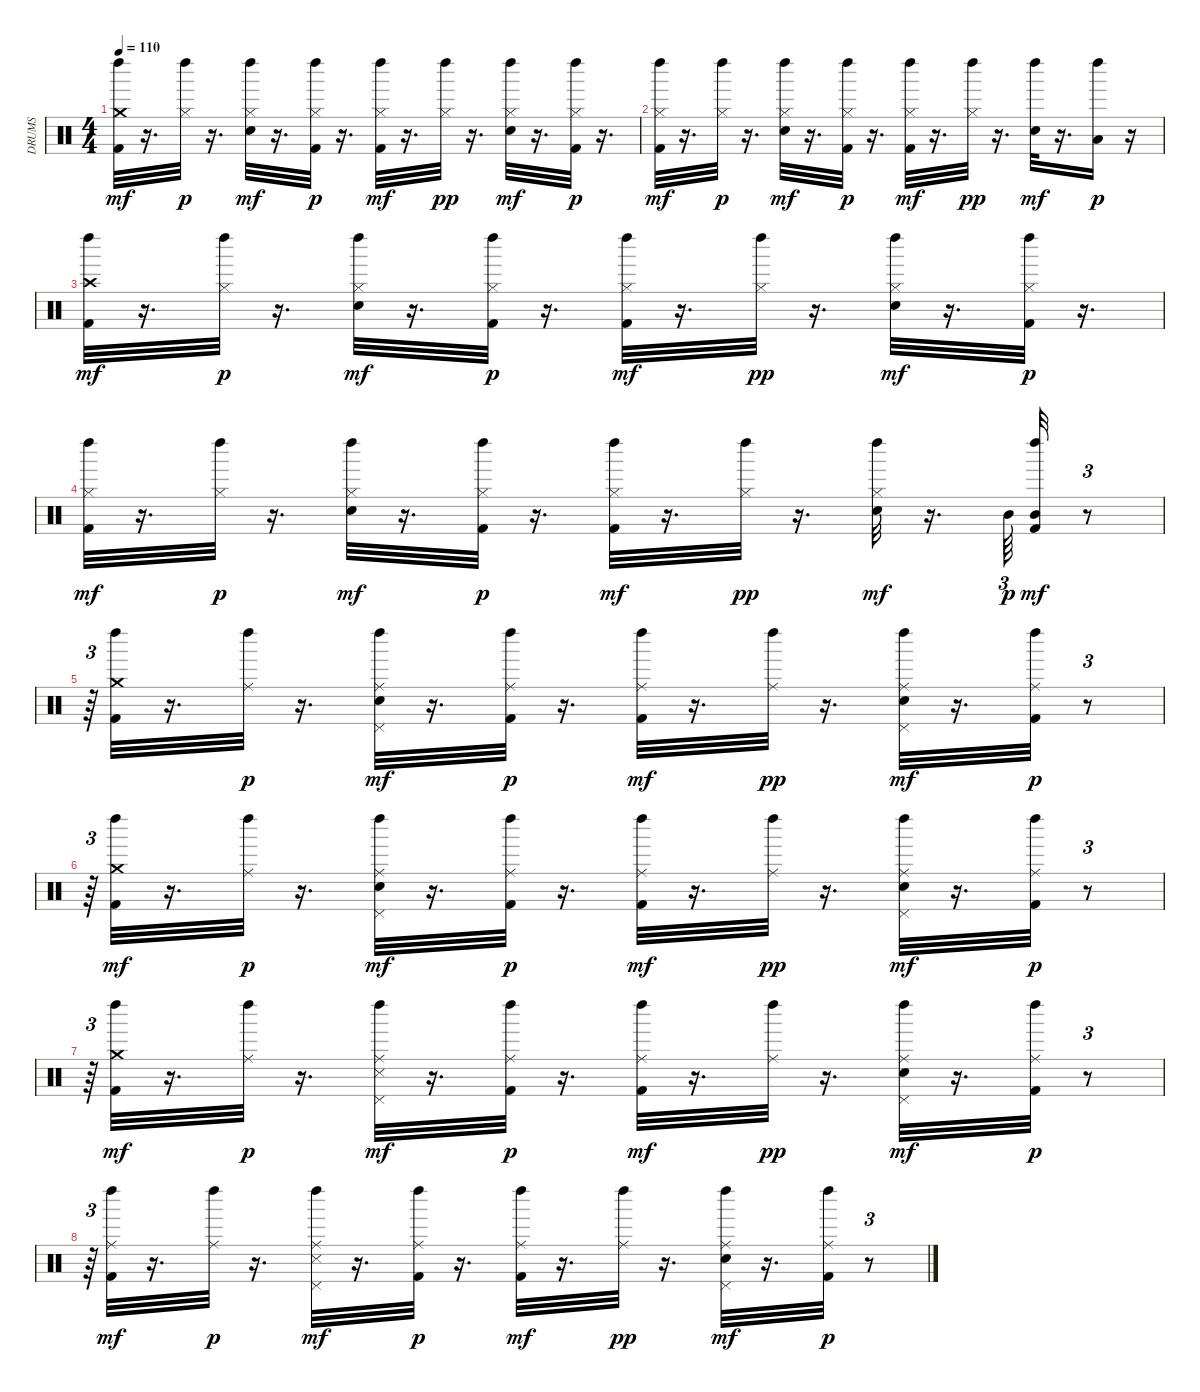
\track ("DRUMS" "DRUMS") {instrument percussion}
\staff {score}
\articulation defaults
\ts (4 4)
\tempo 110
\clef neutral
\ks c
("Kick (hit) 2" "Crash medium (hit)" "Left Maraca (hit)").32{dy mf} r.16{d} ("Hi-Hat (closed)" "Left Maraca (hit)").32{dy p} r.16{d} ("Snare (hit) 2" "Hi-Hat (closed)" "Left Maraca (hit)").32{dy mf} r.16{d} ("Kick (hit) 2" "Hi-Hat (closed)" "Left Maraca (hit)").32{dy p} r.16{d} ("Kick (hit) 2" "Hi-Hat (closed)" "Left Maraca (hit)").32{dy mf} r.16{d} ("Hi-Hat (closed)" "Left Maraca (hit)").32{dy pp} r.16{d} ("Snare (hit) 2" "Hi-Hat (closed)" "Left Maraca (hit)").32{dy mf} r.16{d} ("Kick (hit) 2" "Hi-Hat (closed)" "Left Maraca (hit)").32{dy p} r.16{d} |
("Kick (hit) 2" "Hi-Hat (closed)" "Left Maraca (hit)").32{dy mf} r.16{d} ("Hi-Hat (closed)" "Left Maraca (hit)").32{dy p} r.16{d} ("Snare (hit) 2" "Hi-Hat (closed)" "Left Maraca (hit)").32{dy mf} r.16{d} ("Kick (hit) 2" "Hi-Hat (closed)" "Left Maraca (hit)").32{dy p} r.16{d} ("Kick (hit) 2" "Hi-Hat (closed)" "Left Maraca (hit)").32{dy mf} r.16{d} ("Hi-Hat (closed)" "Left Maraca (hit)").32{dy pp} r.16{d} ("Snare (hit) 2" "Left Maraca (hit)").32{dy mf} r.16{d} ("Low Tom (hit)" "Left Maraca (hit)").16{dy p} r.16 |
("Kick (hit) 2" "Crash high (hit)" "Left Maraca (hit)").32{dy mf} r.16{d} ("Hi-Hat (closed)" "Left Maraca (hit)").32{dy p} r.16{d} ("Snare (hit) 2" "Hi-Hat (closed)" "Left Maraca (hit)").32{dy mf} r.16{d} ("Kick (hit) 2" "Hi-Hat (closed)" "Left Maraca (hit)").32{dy p} r.16{d} ("Kick (hit) 2" "Hi-Hat (closed)" "Left Maraca (hit)").32{dy mf} r.16{d} ("Hi-Hat (closed)" "Left Maraca (hit)").32{dy pp} r.16{d} ("Snare (hit) 2" "Hi-Hat (closed)" "Left Maraca (hit)").32{dy mf} r.16{d} ("Kick (hit) 2" "Hi-Hat (closed)" "Left Maraca (hit)").32{dy p} r.16{d} |
("Kick (hit) 2" "Hi-Hat (closed)" "Left Maraca (hit)").32{dy mf} r.16{d} ("Hi-Hat (closed)" "Left Maraca (hit)").32{dy p} r.16{d} ("Snare (hit) 2" "Hi-Hat (closed)" "Left Maraca (hit)").32{dy mf} r.16{d} ("Kick (hit) 2" "Hi-Hat (closed)" "Left Maraca (hit)").32{dy p} r.16{d} ("Kick (hit) 2" "Hi-Hat (closed)" "Left Maraca (hit)").32{dy mf} r.16{d} ("Hi-Hat (closed)" "Left Maraca (hit)").32{dy pp} r.16{d} ("Snare (hit) 2" "Hi-Hat (closed)" "Left Maraca (hit)").32{dy mf} r.16{d} "Mid Tom (hit)".64{tu (3 2) dy p} ("Kick (hit) 2" "Left Maraca (hit)" "Mid Tom (hit)").32{dy mf} r.8{tu (3 2)} |
r.64{tu (3 2)} ("Kick (hit) 2" "Crash medium (hit)" "Left Maraca (hit)").32 r.16{d} ("Ride (middle)" "Left Maraca (hit)").32{dy p} r.16{d} ("Snare (hit) 2" "Pedal Hi-Hat (hit)" "Ride (middle)" "Left Maraca (hit)").32{dy mf} r.16{d} ("Kick (hit) 2" "Ride (middle)" "Left Maraca (hit)").32{dy p} r.16{d} ("Kick (hit) 2" "Ride (middle)" "Left Maraca (hit)").32{dy mf} r.16{d} ("Ride (middle)" "Left Maraca (hit)").32{dy pp} r.16{d} ("Snare (hit) 2" "Pedal Hi-Hat (hit)" "Ride (middle)" "Left Maraca (hit)").32{dy mf} r.16{d} ("Kick (hit) 2" "Ride (middle)" "Left Maraca (hit)").32{dy p} r.8{tu (3 2)} |
r.64{tu (3 2)} ("Kick (hit) 2" "Crash medium (hit)" "Left Maraca (hit)").32{dy mf} r.16{d} ("Ride (middle)" "Left Maraca (hit)").32{dy p} r.16{d} ("Snare (hit) 2" "Pedal Hi-Hat (hit)" "Ride (middle)" "Left Maraca (hit)").32{dy mf} r.16{d} ("Kick (hit) 2" "Ride (middle)" "Left Maraca (hit)").32{dy p} r.16{d} ("Kick (hit) 2" "Ride (middle)" "Left Maraca (hit)").32{dy mf} r.16{d} ("Ride (middle)" "Left Maraca (hit)").32{dy pp} r.16{d} ("Snare (hit) 2" "Pedal Hi-Hat (hit)" "Ride (middle)" "Left Maraca (hit)").32{dy mf} r.16{d} ("Kick (hit) 2" "Ride (middle)" "Left Maraca (hit)").32{dy p} r.8{tu (3 2)} |
r.64{tu (3 2)} ("Kick (hit) 2" "Crash medium (hit)" "Left Maraca (hit)").32{dy mf} r.16{d} ("Ride (middle)" "Left Maraca (hit)").32{dy p} r.16{d} ("Snare (side stick) 3" "Pedal Hi-Hat (hit)" "Ride (middle)" "Left Maraca (hit)").32{dy mf} r.16{d} ("Kick (hit) 2" "Ride (middle)" "Left Maraca (hit)").32{dy p} r.16{d} ("Kick (hit) 2" "Ride (middle)" "Left Maraca (hit)").32{dy mf} r.16{d} ("Ride (middle)" "Left Maraca (hit)").32{dy pp} r.16{d} ("Snare (hit) 2" "Pedal Hi-Hat (hit)" "Ride (middle)" "Left Maraca (hit)").32{dy mf} r.16{d} ("Kick (hit) 2" "Ride (middle)" "Left Maraca (hit)").32{dy p} r.8{tu (3 2)} |
r.64{tu (3 2)} ("Kick (hit) 2" "Ride (middle)" "Left Maraca (hit)").32{dy mf} r.16{d} ("Ride (middle)" "Left Maraca (hit)").32{dy p} r.16{d} ("Snare (side stick) 3" "Pedal Hi-Hat (hit)" "Ride (middle)" "Left Maraca (hit)").32{dy mf} r.16{d} ("Kick (hit) 2" "Ride (middle)" "Left Maraca (hit)").32{dy p} r.16{d} ("Kick (hit) 2" "Ride (middle)" "Left Maraca (hit)").32{dy mf} r.16{d} ("Ride (middle)" "Left Maraca (hit)").32{dy pp} r.16{d} ("Snare (hit) 2" "Pedal Hi-Hat (hit)" "Ride (middle)" "Left Maraca (hit)").32{dy mf} r.16{d} ("Kick (hit) 2" "Ride (middle)" "Left Maraca (hit)").32{dy p} r.8{tu (3 2)}
